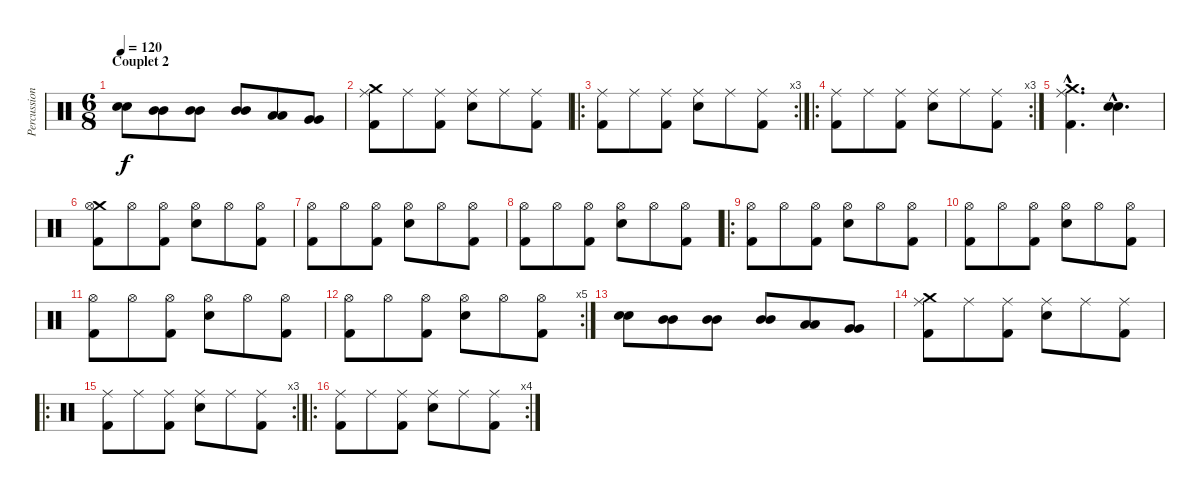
\track ("Percussions" "Percussion") {instrument percussion}
\staff {score}
\articulation defaults
\ts (6 8)
\section ("" "Couplet 2")
\tempo 120
\clef neutral
\ks c
("Electric Snare (hit)" "Electric Snare (hit)").8{dy f} ("Mid Tom (hit)" "Mid Tom (hit)").8 ("Mid Tom (hit)" "Mid Tom (hit)").8 ("Mid Tom (hit)" "Mid Tom (hit)").8 ("Low Tom (hit)" "Low Tom (hit)").8 ("Very Low Tom (hit)" "Very Low Tom (hit)").8 |
("Crash medium (hit)" "Ride (middle)" "Kick (hit) 2").8 "Ride (middle)".8 ("Ride (middle)" "Kick (hit) 2").8 ("Ride (middle)" "Electric Snare (hit)").8 "Ride (middle)".8 ("Ride (middle)" "Kick (hit) 2").8 |
\ro
\rc 3
("Ride (middle)" "Kick (hit) 2").8 "Ride (middle)".8 ("Ride (middle)" "Kick (hit) 2").8 ("Ride (middle)" "Electric Snare (hit)").8 "Ride (middle)".8 ("Ride (middle)" "Kick (hit) 2").8 |
\ro
\rc 3
("Ride (middle)" "Kick (hit) 2").8 "Ride (middle)".8 ("Ride (middle)" "Kick (hit) 2").8 ("Ride (middle)" "Electric Snare (hit)").8 "Ride (middle)".8 ("Ride (middle)" "Kick (hit) 2").8 |
("Crash medium (hit)"{hac} "Ride (middle)"{hac} "Kick (hit) 2"{hac}).4{d} ("Electric Snare (hit)"{hac} "Electric Snare (hit)"{hac}).4{d} |
("Crash medium (hit)" "Hi-Hat (open)" "Kick (hit) 2").8 "Hi-Hat (open)".8 ("Hi-Hat (open)" "Kick (hit) 2").8 ("Hi-Hat (open)" "Electric Snare (hit)").8 "Hi-Hat (open)".8 ("Hi-Hat (open)" "Kick (hit) 2").8 |
("Hi-Hat (open)" "Kick (hit) 2").8 "Hi-Hat (open)".8 ("Hi-Hat (open)" "Kick (hit) 2").8 ("Hi-Hat (open)" "Electric Snare (hit)").8 "Hi-Hat (open)".8 ("Hi-Hat (open)" "Kick (hit) 2").8 |
("Hi-Hat (open)" "Kick (hit) 2").8 "Hi-Hat (open)".8 ("Hi-Hat (open)" "Kick (hit) 2").8 ("Hi-Hat (open)" "Electric Snare (hit)").8 "Hi-Hat (open)".8 ("Hi-Hat (open)" "Kick (hit) 2").8 |
\ro
("Hi-Hat (open)" "Kick (hit) 2").8 "Hi-Hat (open)".8 ("Hi-Hat (open)" "Kick (hit) 2").8 ("Hi-Hat (open)" "Electric Snare (hit)").8 "Hi-Hat (open)".8 ("Hi-Hat (open)" "Kick (hit) 2").8 |
("Hi-Hat (open)" "Kick (hit) 2").8 "Hi-Hat (open)".8 ("Hi-Hat (open)" "Kick (hit) 2").8 ("Hi-Hat (open)" "Electric Snare (hit)").8 "Hi-Hat (open)".8 ("Hi-Hat (open)" "Kick (hit) 2").8 |
("Hi-Hat (open)" "Kick (hit) 2").8 "Hi-Hat (open)".8 ("Hi-Hat (open)" "Kick (hit) 2").8 ("Hi-Hat (open)" "Electric Snare (hit)").8 "Hi-Hat (open)".8 ("Hi-Hat (open)" "Kick (hit) 2").8 |
\rc 5
("Hi-Hat (open)" "Kick (hit) 2").8 "Hi-Hat (open)".8 ("Hi-Hat (open)" "Kick (hit) 2").8 ("Hi-Hat (open)" "Electric Snare (hit)").8 "Hi-Hat (open)".8 ("Hi-Hat (open)" "Kick (hit) 2").8 |
("Electric Snare (hit)" "Electric Snare (hit)").8 ("Mid Tom (hit)" "Mid Tom (hit)").8 ("Mid Tom (hit)" "Mid Tom (hit)").8 ("Mid Tom (hit)" "Mid Tom (hit)").8 ("Low Tom (hit)" "Low Tom (hit)").8 ("Very Low Tom (hit)" "Very Low Tom (hit)").8 |
("Crash medium (hit)" "Ride (middle)" "Kick (hit) 2").8 "Ride (middle)".8 ("Ride (middle)" "Kick (hit) 2").8 ("Ride (middle)" "Electric Snare (hit)").8 "Ride (middle)".8 ("Ride (middle)" "Kick (hit) 2").8 |
\ro
\rc 3
("Ride (middle)" "Kick (hit) 2").8 "Ride (middle)".8 ("Ride (middle)" "Kick (hit) 2").8 ("Ride (middle)" "Electric Snare (hit)").8 "Ride (middle)".8 ("Ride (middle)" "Kick (hit) 2").8 |
\ro
\rc 4
("Ride (middle)" "Kick (hit) 2").8 "Ride (middle)".8 ("Ride (middle)" "Kick (hit) 2").8 ("Ride (middle)" "Electric Snare (hit)").8 "Ride (middle)".8 ("Ride (middle)" "Kick (hit) 2").8
